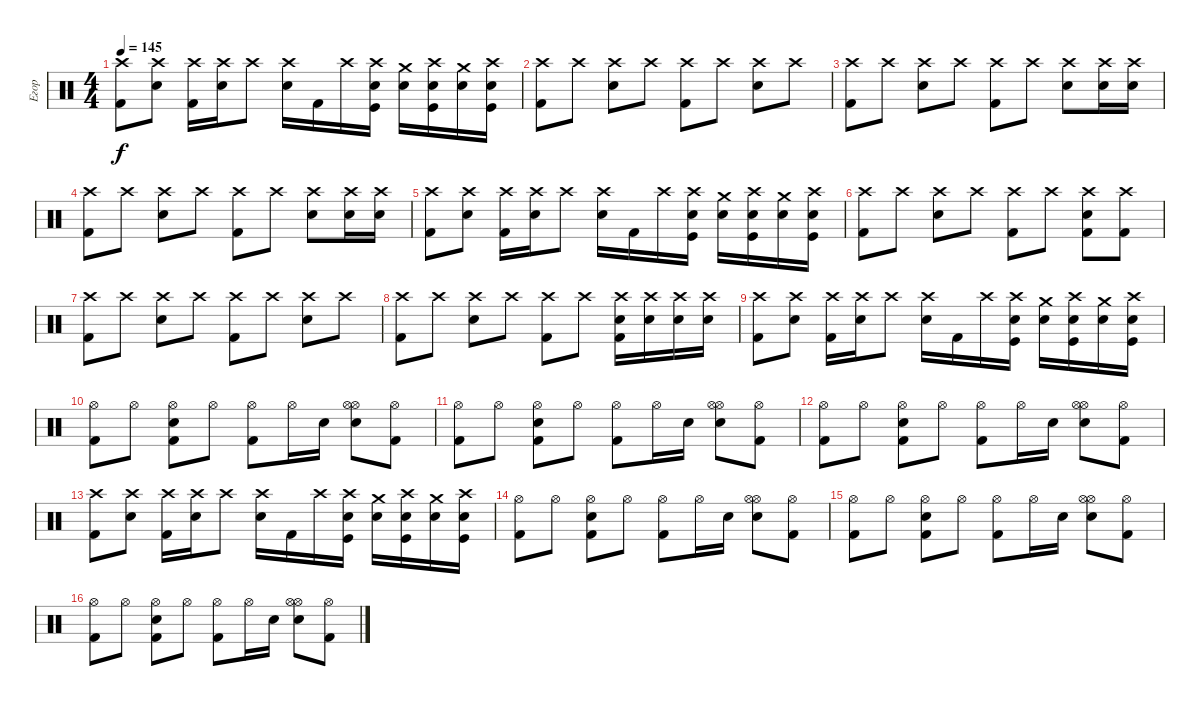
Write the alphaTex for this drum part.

\track ("Егор" "Егор") {instrument percussion}
\staff {score}
\articulation defaults
\ts (4 4)
\tempo 145
\clef neutral
\ks c
("Crash high (hit)" "Kick (hit) 2").8{dy f} ("Crash high (hit)" "Electric Snare (hit)").8 ("Crash high (hit)" "Kick (hit) 2").16 ("Crash high (hit)" "Electric Snare (hit)").16 "Crash high (hit)".8 ("Crash high (hit)" "Electric Snare (hit)").16 "Kick (hit) 2".16 "Crash high (hit)".16 ("Crash high (hit)" "Electric Snare (hit)" "Kick (hit)").16 ("Crash medium (hit)" "Electric Snare (hit)").16 ("Crash high (hit)" "Electric Snare (hit)" "Kick (hit)").16 ("Crash medium (hit)" "Electric Snare (hit)").16 ("Crash high (hit)" "Electric Snare (hit)" "Kick (hit)").16 |
("Crash high (hit)" "Kick (hit) 2").8 "Crash high (hit)".8 ("Crash high (hit)" "Electric Snare (hit)").8 "Crash high (hit)".8 ("Crash high (hit)" "Kick (hit) 2").8 "Crash high (hit)".8 ("Crash high (hit)" "Electric Snare (hit)").8 "Crash high (hit)".8 |
("Crash high (hit)" "Kick (hit) 2").8 "Crash high (hit)".8 ("Crash high (hit)" "Electric Snare (hit)").8 "Crash high (hit)".8 ("Crash high (hit)" "Kick (hit) 2").8 "Crash high (hit)".8 ("Crash high (hit)" "Electric Snare (hit)").8 ("Crash high (hit)" "Electric Snare (hit)").16 ("Crash high (hit)" "Electric Snare (hit)").16 |
("Crash high (hit)" "Kick (hit) 2").8 "Crash high (hit)".8 ("Crash high (hit)" "Electric Snare (hit)").8 "Crash high (hit)".8 ("Crash high (hit)" "Kick (hit) 2").8 "Crash high (hit)".8 ("Crash high (hit)" "Electric Snare (hit)").8 ("Crash high (hit)" "Electric Snare (hit)").16 ("Crash high (hit)" "Electric Snare (hit)").16 |
("Crash high (hit)" "Kick (hit) 2").8 ("Crash high (hit)" "Electric Snare (hit)").8 ("Crash high (hit)" "Kick (hit) 2").16 ("Crash high (hit)" "Electric Snare (hit)").16 "Crash high (hit)".8 ("Crash high (hit)" "Electric Snare (hit)").16 "Kick (hit) 2".16 "Crash high (hit)".16 ("Crash high (hit)" "Electric Snare (hit)" "Kick (hit)").16 ("Crash medium (hit)" "Electric Snare (hit)").16 ("Crash high (hit)" "Electric Snare (hit)" "Kick (hit)").16 ("Crash medium (hit)" "Electric Snare (hit)").16 ("Crash high (hit)" "Electric Snare (hit)" "Kick (hit)").16 |
("Crash high (hit)" "Kick (hit) 2").8 "Crash high (hit)".8 ("Crash high (hit)" "Electric Snare (hit)").8 "Crash high (hit)".8 ("Crash high (hit)" "Kick (hit) 2").8 "Crash high (hit)".8 ("Crash high (hit)" "Electric Snare (hit)" "Kick (hit) 2").8 ("Crash high (hit)" "Kick (hit) 2").8 |
("Crash high (hit)" "Kick (hit) 2").8 "Crash high (hit)".8 ("Crash high (hit)" "Electric Snare (hit)").8 "Crash high (hit)".8 ("Crash high (hit)" "Kick (hit) 2").8 "Crash high (hit)".8 ("Crash high (hit)" "Electric Snare (hit)").8 "Crash high (hit)".8 |
("Crash high (hit)" "Kick (hit) 2").8 "Crash high (hit)".8 ("Crash high (hit)" "Electric Snare (hit)").8 "Crash high (hit)".8 ("Crash high (hit)" "Kick (hit) 2").8 "Crash high (hit)".8 ("Crash high (hit)" "Electric Snare (hit)" "Kick (hit) 2").16 ("Crash high (hit)" "Electric Snare (hit)").16 ("Crash high (hit)" "Electric Snare (hit)").16 ("Crash high (hit)" "Electric Snare (hit)").16 |
("Crash high (hit)" "Kick (hit) 2").8 ("Crash high (hit)" "Electric Snare (hit)").8 ("Crash high (hit)" "Kick (hit) 2").16 ("Crash high (hit)" "Electric Snare (hit)").16 "Crash high (hit)".8 ("Crash high (hit)" "Electric Snare (hit)").16 "Kick (hit) 2".16 "Crash high (hit)".16 ("Crash high (hit)" "Electric Snare (hit)" "Kick (hit)").16 ("Crash medium (hit)" "Electric Snare (hit)").16 ("Crash high (hit)" "Electric Snare (hit)" "Kick (hit)").16 ("Crash medium (hit)" "Electric Snare (hit)").16 ("Crash high (hit)" "Electric Snare (hit)" "Kick (hit)").16 |
("Hi-Hat (open)" "Kick (hit) 2").8 "Hi-Hat (open)".8 ("Hi-Hat (open)" "Electric Snare (hit)" "Kick (hit) 2").8 "Hi-Hat (open)".8 ("Hi-Hat (open)" "Kick (hit) 2").8 "Hi-Hat (open)".16 "Electric Snare (hit)".16 ("Hi-Hat (open)" "Electric Snare (hit)" "Hi-Hat (open)").8 ("Hi-Hat (open)" "Kick (hit) 2").8 |
("Hi-Hat (open)" "Kick (hit) 2").8 "Hi-Hat (open)".8 ("Hi-Hat (open)" "Electric Snare (hit)" "Kick (hit) 2").8 "Hi-Hat (open)".8 ("Hi-Hat (open)" "Kick (hit) 2").8 "Hi-Hat (open)".16 "Electric Snare (hit)".16 ("Hi-Hat (open)" "Electric Snare (hit)" "Hi-Hat (open)").8 ("Hi-Hat (open)" "Kick (hit) 2").8 |
("Hi-Hat (open)" "Kick (hit) 2").8 "Hi-Hat (open)".8 ("Hi-Hat (open)" "Electric Snare (hit)" "Kick (hit) 2").8 "Hi-Hat (open)".8 ("Hi-Hat (open)" "Kick (hit) 2").8 "Hi-Hat (open)".16 "Electric Snare (hit)".16 ("Hi-Hat (open)" "Electric Snare (hit)" "Hi-Hat (open)").8 ("Hi-Hat (open)" "Kick (hit) 2").8 |
("Crash high (hit)" "Kick (hit) 2").8 ("Crash high (hit)" "Electric Snare (hit)").8 ("Crash high (hit)" "Kick (hit) 2").16 ("Crash high (hit)" "Electric Snare (hit)").16 "Crash high (hit)".8 ("Crash high (hit)" "Electric Snare (hit)").16 "Kick (hit) 2".16 "Crash high (hit)".16 ("Crash high (hit)" "Electric Snare (hit)" "Kick (hit)").16 ("Crash medium (hit)" "Electric Snare (hit)").16 ("Crash high (hit)" "Electric Snare (hit)" "Kick (hit)").16 ("Crash medium (hit)" "Electric Snare (hit)").16 ("Crash high (hit)" "Electric Snare (hit)" "Kick (hit)").16 |
("Hi-Hat (open)" "Kick (hit) 2").8 "Hi-Hat (open)".8 ("Hi-Hat (open)" "Electric Snare (hit)" "Kick (hit) 2").8 "Hi-Hat (open)".8 ("Hi-Hat (open)" "Kick (hit) 2").8 "Hi-Hat (open)".16 "Electric Snare (hit)".16 ("Hi-Hat (open)" "Electric Snare (hit)" "Hi-Hat (open)").8 ("Hi-Hat (open)" "Kick (hit) 2").8 |
("Hi-Hat (open)" "Kick (hit) 2").8 "Hi-Hat (open)".8 ("Hi-Hat (open)" "Electric Snare (hit)" "Kick (hit) 2").8 "Hi-Hat (open)".8 ("Hi-Hat (open)" "Kick (hit) 2").8 "Hi-Hat (open)".16 "Electric Snare (hit)".16 ("Hi-Hat (open)" "Electric Snare (hit)" "Hi-Hat (open)").8 ("Hi-Hat (open)" "Kick (hit) 2").8 |
("Hi-Hat (open)" "Kick (hit) 2").8 "Hi-Hat (open)".8 ("Hi-Hat (open)" "Electric Snare (hit)" "Kick (hit) 2").8 "Hi-Hat (open)".8 ("Hi-Hat (open)" "Kick (hit) 2").8 "Hi-Hat (open)".16 "Electric Snare (hit)".16 ("Hi-Hat (open)" "Electric Snare (hit)" "Hi-Hat (open)").8 ("Hi-Hat (open)" "Kick (hit) 2").8
